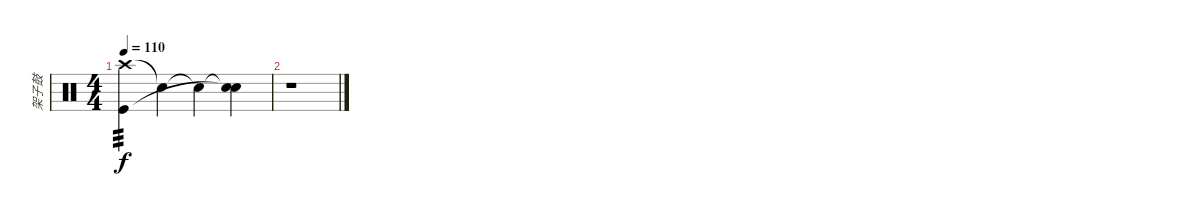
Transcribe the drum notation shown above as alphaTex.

\track ("架子鼓" "架子鼓") {instrument percussion}
\staff {score}
\articulation defaults
\ts (4 4)
\tempo 110
\clef neutral
\ks c
("Crash high (hit)" "Kick (hit)").4{tp 3 dy f} "Snare (hit)"{t}.4 "Snare (hit)"{t}.4 ("Snare (hit)"{t} "Snare (hit)"{t}).4 |
r.1
